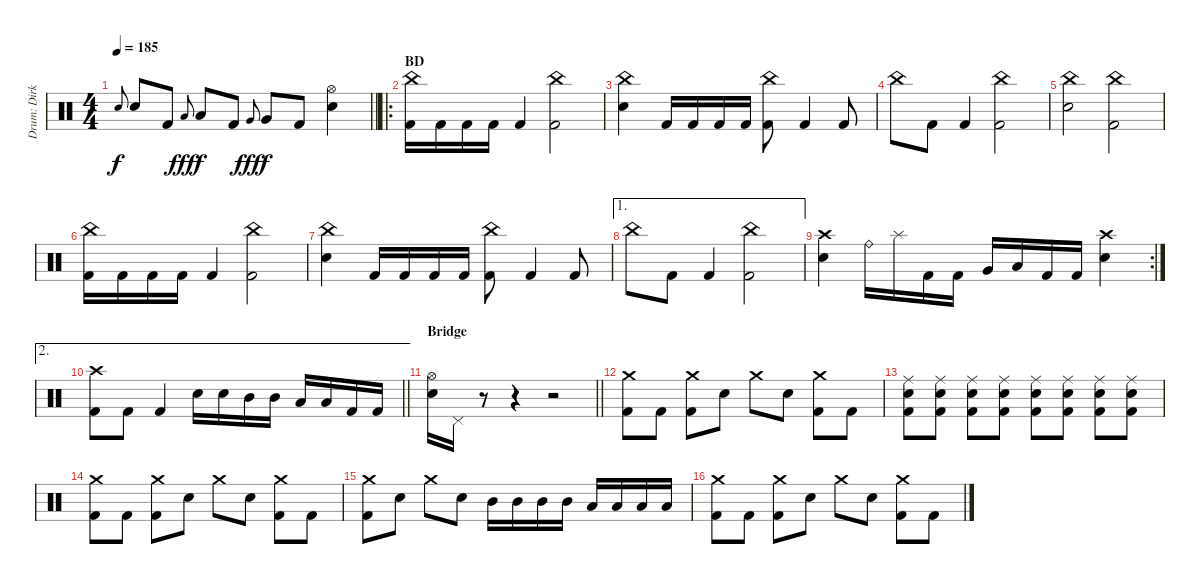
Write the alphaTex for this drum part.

\track ("Drum: Dirk" "Drum: Dirk") {instrument percussion}
\staff {score}
\articulation defaults
\ts (4 4)
\tempo 185
\clef neutral
\barLineRight lightlight
\ks c "Electric Snare (hit)".8{gr onbeat dy f} "Electric Snare (hit)".8 "Kick (hit) 2".8 "Low Tom (hit)".8{gr onbeat dy fff} "Low Tom (hit)".8{dy f} "Kick (hit) 2".8 "Very Low Tom (hit)".8{gr onbeat dy fff} "Very Low Tom (hit)".8{dy f} "Kick (hit) 2".8
("Hi-Hat (open)" "Electric Snare (hit)").4 |
\ro
\section ("" "BD")
("China (hit)" "Kick (hit) 2").16 "Kick (hit) 2".16 "Kick (hit) 2".16 "Kick (hit) 2".16 "Kick (hit) 2".4 ("China (hit)" "Kick (hit) 2").2 |
("China (hit)" "Electric Snare (hit)").4 "Kick (hit) 2".16 "Kick (hit) 2".16 "Kick (hit) 2".16 "Kick (hit) 2".16 ("China (hit)" "Kick (hit) 2").8 "Kick (hit) 2".4 "Kick (hit) 2".8 |
"China (hit)".8 "Kick (hit) 2".8 "Kick (hit) 2".4 ("China (hit)" "Kick (hit) 2").2 |
("China (hit)" "Electric Snare (hit)").2 ("China (hit)" "Kick (hit) 2").2 |
("China (hit)" "Kick (hit) 2").16 "Kick (hit) 2".16 "Kick (hit) 2".16 "Kick (hit) 2".16 "Kick (hit) 2".4 ("China (hit)" "Kick (hit) 2").2 |
("China (hit)" "Electric Snare (hit)").4 "Kick (hit) 2".16 "Kick (hit) 2".16 "Kick (hit) 2".16 "Kick (hit) 2".16 ("China (hit)" "Kick (hit) 2").8 "Kick (hit) 2".4 "Kick (hit) 2".8 |
\ae 1 "China (hit)".8 "Kick (hit) 2".8 "Kick (hit) 2".4
("China (hit)" "Kick (hit) 2").2 |
\rc 2
("Crash high (hit)" "Electric Snare (hit)").4 "Ride (bell)".16 "Splash (hit)".16 "Kick (hit) 2".16 "Kick (hit) 2".16 "Very Low Tom (hit)".16 "Low Tom (hit)".16 "Kick (hit) 2".16 "Kick (hit) 2".16 ("Crash high (hit)" "Electric Snare (hit)").4 |
\ae 2
\barLineRight lightlight
("Crash high (hit)" "Kick (hit) 2").8 "Kick (hit) 2".8 "Kick (hit) 2".4 "Electric Snare (hit)".16 "Electric Snare (hit)".16 "Mid Tom (hit)".16 "Mid Tom (hit)".16 "Low Tom (hit)".16 "Low Tom (hit)".16 "Kick (hit) 2".16 "Kick (hit) 2".16 |
\section ("" "Bridge")
\barLineRight lightlight
("Hi-Hat (open)" "Electric Snare (hit)").16 "Pedal Hi-Hat (hit)".16 r.8 r.4 r.2 |
("Crash medium (hit)" "Kick (hit) 2").8 "Kick (hit) 2".8 ("Crash medium (hit)" "Kick (hit) 2").8 "Electric Snare (hit)".8 "Crash medium (hit)".8 "Electric Snare (hit)".8 ("Crash medium (hit)" "Kick (hit) 2").8 "Kick (hit) 2".8 |
("Ride (middle)" "Electric Snare (hit)" "Kick (hit) 2").8 ("Ride (middle)" "Electric Snare (hit)" "Kick (hit) 2").8 ("Ride (middle)" "Electric Snare (hit)" "Kick (hit) 2").8 ("Ride (middle)" "Electric Snare (hit)" "Kick (hit) 2").8 ("Ride (middle)" "Electric Snare (hit)" "Kick (hit) 2").8 ("Ride (middle)" "Electric Snare (hit)" "Kick (hit) 2").8 ("Ride (middle)" "Electric Snare (hit)" "Kick (hit) 2").8 ("Ride (middle)" "Electric Snare (hit)" "Kick (hit) 2").8 |
("Crash medium (hit)" "Kick (hit) 2").8 "Kick (hit) 2".8 ("Crash medium (hit)" "Kick (hit) 2").8 "Electric Snare (hit)".8 "Crash medium (hit)".8 "Electric Snare (hit)".8 ("Crash medium (hit)" "Kick (hit) 2").8 "Kick (hit) 2".8 |
("Crash medium (hit)" "Kick (hit) 2").8 "Electric Snare (hit)".8 "Crash medium (hit)".8 "Electric Snare (hit)".8 "Mid Tom (hit)".16 "Mid Tom (hit)".16 "Mid Tom (hit)".16 "Mid Tom (hit)".16 "Low Tom (hit)".16 "Low Tom (hit)".16 "Low Tom (hit)".16 "Low Tom (hit)".16 |
("Crash medium (hit)" "Kick (hit) 2").8 "Kick (hit) 2".8 ("Crash medium (hit)" "Kick (hit) 2").8 "Electric Snare (hit)".8 "Crash medium (hit)".8 "Electric Snare (hit)".8 ("Crash medium (hit)" "Kick (hit) 2").8 "Kick (hit) 2".8
